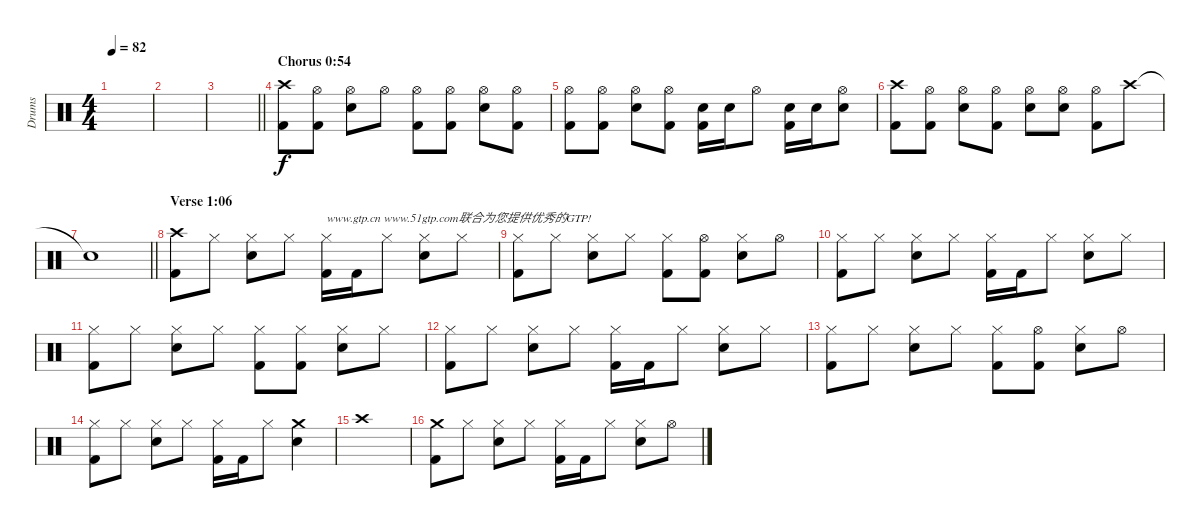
\track ("Drums" "Drums") {instrument percussion}
\staff {score}
\articulation defaults
\ts (4 4)
\tempo 82
\clef neutral
\ks c
|
|
\barLineRight lightlight
|
\section ("" "Chorus 0:54")
("Crash high (hit)" "Kick (hit) 2").8 ("Hi-Hat (open)" "Kick (hit) 2").8 ("Hi-Hat (open)" "Snare (hit) 2").8 "Hi-Hat (open)".8 ("Hi-Hat (open)" "Kick (hit) 2").8 ("Hi-Hat (open)" "Kick (hit) 2").8 ("Hi-Hat (open)" "Snare (hit) 2").8 ("Hi-Hat (open)" "Kick (hit) 2").8 |
("Hi-Hat (open)" "Kick (hit) 2").8 ("Hi-Hat (open)" "Kick (hit) 2").8 ("Hi-Hat (open)" "Snare (hit) 2").8 ("Hi-Hat (open)" "Kick (hit) 2").8 ("Snare (hit) 2" "Kick (hit) 2").16 "Snare (hit) 2".16 "Hi-Hat (open)".8 ("Snare (hit) 2" "Kick (hit) 2").16 "Snare (hit) 2".16 ("Hi-Hat (open)" "Snare (hit) 2").8 |
("Crash high (hit)" "Kick (hit) 2").8 ("Hi-Hat (open)" "Kick (hit) 2").8 ("Hi-Hat (open)" "Snare (hit) 2").8 ("Hi-Hat (open)" "Kick (hit) 2").8 ("Hi-Hat (open)" "Snare (hit) 2").8 ("Hi-Hat (open)" "Snare (hit) 2").8 ("Hi-Hat (open)" "Kick (hit) 2").8 "Crash high (hit)".8 |
\barLineRight lightlight "Snare (hit)"{t}.1
|
\section ("" "Verse 1:06")
("Crash high (hit)" "Kick (hit) 2").8 "Hi-Hat (closed)".8 ("Hi-Hat (closed)" "Snare (hit) 2").8 "Hi-Hat (closed)".8 ("Hi-Hat (closed)" "Kick (hit) 2").16{txt "www.gtp.cn www.51gtp.com联合为您提供优秀的GTP!"} "Kick (hit) 2".16 "Hi-Hat (closed)".8 ("Hi-Hat (closed)" "Snare (hit) 2").8 "Hi-Hat (closed)".8 |
("Hi-Hat (closed)" "Kick (hit) 2").8 "Hi-Hat (closed)".8 ("Hi-Hat (closed)" "Snare (hit) 2").8 "Hi-Hat (closed)".8 ("Hi-Hat (closed)" "Kick (hit) 2").8 ("Hi-Hat (open)" "Kick (hit) 2").8 ("Hi-Hat (closed)" "Snare (hit) 2").8 "Hi-Hat (open)".8 |
("Hi-Hat (closed)" "Kick (hit) 2").8 "Hi-Hat (closed)".8 ("Hi-Hat (closed)" "Snare (hit) 2").8 "Hi-Hat (closed)".8 ("Hi-Hat (closed)" "Kick (hit) 2").16 "Kick (hit) 2".16 "Hi-Hat (closed)".8 ("Hi-Hat (closed)" "Snare (hit) 2").8 "Hi-Hat (closed)".8 |
("Hi-Hat (closed)" "Kick (hit) 2").8 "Hi-Hat (closed)".8 ("Hi-Hat (closed)" "Snare (hit) 2").8 "Hi-Hat (closed)".8 ("Hi-Hat (closed)" "Kick (hit) 2").8 ("Hi-Hat (closed)" "Kick (hit) 2").8 ("Hi-Hat (closed)" "Snare (hit) 2").8 "Hi-Hat (closed)".8 |
("Hi-Hat (closed)" "Kick (hit) 2").8 "Hi-Hat (closed)".8 ("Hi-Hat (closed)" "Snare (hit) 2").8 "Hi-Hat (closed)".8 ("Hi-Hat (closed)" "Kick (hit) 2").16 "Kick (hit) 2".16 "Hi-Hat (closed)".8 ("Hi-Hat (closed)" "Snare (hit) 2").8 "Hi-Hat (closed)".8 |
("Hi-Hat (closed)" "Kick (hit) 2").8 "Hi-Hat (closed)".8 ("Hi-Hat (closed)" "Snare (hit) 2").8 "Hi-Hat (closed)".8 ("Hi-Hat (closed)" "Kick (hit) 2").8 ("Hi-Hat (open)" "Kick (hit) 2").8 ("Hi-Hat (closed)" "Snare (hit) 2").8 "Hi-Hat (open)".8 |
("Hi-Hat (closed)" "Kick (hit) 2").8 "Hi-Hat (closed)".8 ("Hi-Hat (closed)" "Snare (hit) 2").8 "Hi-Hat (closed)".8 ("Hi-Hat (closed)" "Kick (hit) 2").16 "Kick (hit) 2".16 "Hi-Hat (closed)".8 ("Crash medium (hit)" "Snare (hit) 2").4 |
"Crash high (hit)".1 |
("Crash medium (hit)" "Kick (hit) 2").8 "Hi-Hat (closed)".8 ("Hi-Hat (closed)" "Snare (hit) 2").8 "Hi-Hat (closed)".8 ("Hi-Hat (closed)" "Kick (hit) 2").16 "Kick (hit) 2".16 "Hi-Hat (closed)".8 ("Hi-Hat (closed)" "Snare (hit) 2").8 "Hi-Hat (open)".8
